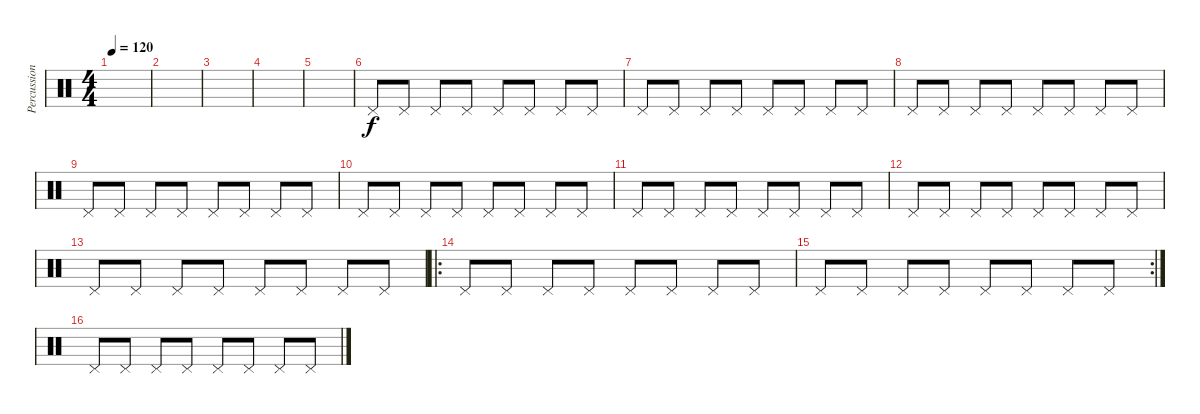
\track ("Percussions" "Percussion") {instrument percussion}
\staff {score}
\articulation defaults
\ts (4 4)
\tempo 120
\clef neutral
\ks c
|
|
|
|
|
"Pedal Hi-Hat (hit)".8 "Pedal Hi-Hat (hit)".8 "Pedal Hi-Hat (hit)".8 "Pedal Hi-Hat (hit)".8 "Pedal Hi-Hat (hit)".8 "Pedal Hi-Hat (hit)".8 "Pedal Hi-Hat (hit)".8 "Pedal Hi-Hat (hit)".8 |
"Pedal Hi-Hat (hit)".8 "Pedal Hi-Hat (hit)".8 "Pedal Hi-Hat (hit)".8 "Pedal Hi-Hat (hit)".8 "Pedal Hi-Hat (hit)".8 "Pedal Hi-Hat (hit)".8 "Pedal Hi-Hat (hit)".8 "Pedal Hi-Hat (hit)".8 |
"Pedal Hi-Hat (hit)".8 "Pedal Hi-Hat (hit)".8 "Pedal Hi-Hat (hit)".8 "Pedal Hi-Hat (hit)".8 "Pedal Hi-Hat (hit)".8 "Pedal Hi-Hat (hit)".8 "Pedal Hi-Hat (hit)".8 "Pedal Hi-Hat (hit)".8 |
"Pedal Hi-Hat (hit)".8 "Pedal Hi-Hat (hit)".8 "Pedal Hi-Hat (hit)".8 "Pedal Hi-Hat (hit)".8 "Pedal Hi-Hat (hit)".8 "Pedal Hi-Hat (hit)".8 "Pedal Hi-Hat (hit)".8 "Pedal Hi-Hat (hit)".8 |
"Pedal Hi-Hat (hit)".8 "Pedal Hi-Hat (hit)".8 "Pedal Hi-Hat (hit)".8 "Pedal Hi-Hat (hit)".8 "Pedal Hi-Hat (hit)".8 "Pedal Hi-Hat (hit)".8 "Pedal Hi-Hat (hit)".8 "Pedal Hi-Hat (hit)".8 |
"Pedal Hi-Hat (hit)".8 "Pedal Hi-Hat (hit)".8 "Pedal Hi-Hat (hit)".8 "Pedal Hi-Hat (hit)".8 "Pedal Hi-Hat (hit)".8 "Pedal Hi-Hat (hit)".8 "Pedal Hi-Hat (hit)".8 "Pedal Hi-Hat (hit)".8 |
"Pedal Hi-Hat (hit)".8 "Pedal Hi-Hat (hit)".8 "Pedal Hi-Hat (hit)".8 "Pedal Hi-Hat (hit)".8 "Pedal Hi-Hat (hit)".8 "Pedal Hi-Hat (hit)".8 "Pedal Hi-Hat (hit)".8 "Pedal Hi-Hat (hit)".8 |
"Pedal Hi-Hat (hit)".8 "Pedal Hi-Hat (hit)".8 "Pedal Hi-Hat (hit)".8 "Pedal Hi-Hat (hit)".8 "Pedal Hi-Hat (hit)".8 "Pedal Hi-Hat (hit)".8 "Pedal Hi-Hat (hit)".8 "Pedal Hi-Hat (hit)".8 |
\ro "Pedal Hi-Hat (hit)".8 "Pedal Hi-Hat (hit)".8 "Pedal Hi-Hat (hit)".8 "Pedal Hi-Hat (hit)".8 "Pedal Hi-Hat (hit)".8 "Pedal Hi-Hat (hit)".8 "Pedal Hi-Hat (hit)".8 "Pedal Hi-Hat (hit)".8
|
\rc 2 "Pedal Hi-Hat (hit)".8 "Pedal Hi-Hat (hit)".8 "Pedal Hi-Hat (hit)".8 "Pedal Hi-Hat (hit)".8 "Pedal Hi-Hat (hit)".8 "Pedal Hi-Hat (hit)".8 "Pedal Hi-Hat (hit)".8 "Pedal Hi-Hat (hit)".8
|
"Pedal Hi-Hat (hit)".8 "Pedal Hi-Hat (hit)".8 "Pedal Hi-Hat (hit)".8 "Pedal Hi-Hat (hit)".8 "Pedal Hi-Hat (hit)".8 "Pedal Hi-Hat (hit)".8 "Pedal Hi-Hat (hit)".8 "Pedal Hi-Hat (hit)".8
